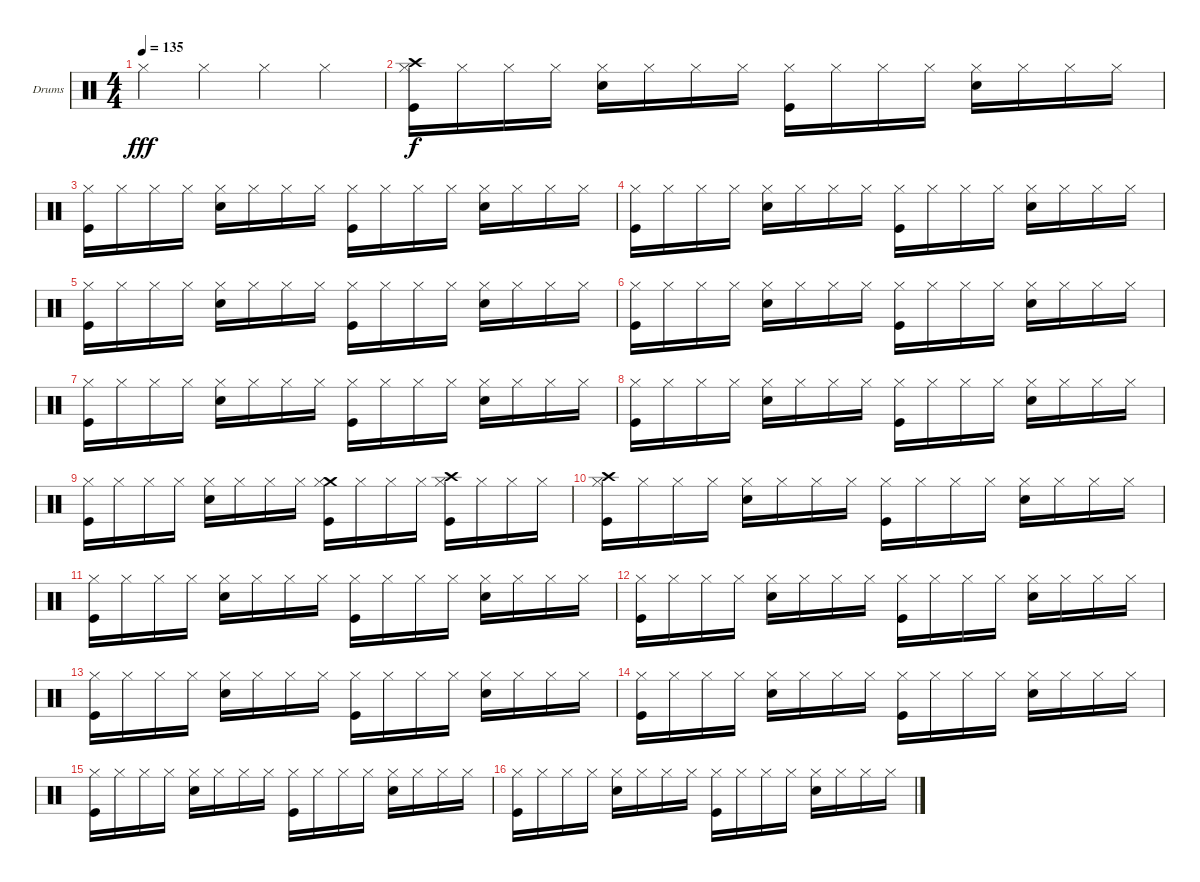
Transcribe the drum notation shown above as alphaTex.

\bracketExtendMode groupsimilarinstruments
\firstSystemTrackNameOrientation horizontal
\otherSystemsTrackNameOrientation horizontal
\track ("Ударные" "Drums") {instrument percussion}
\staff {score}
\articulation defaults
\ts (4 4)
\beaming (8 2 2 2 2)
\tempo 135
\clef neutral
\ks c "Hi-Hat (closed)".4{dy fff} "Hi-Hat (closed)".4 "Hi-Hat (closed)".4 "Hi-Hat (closed)".4
|
("Crash high (hit)" "Hi-Hat (closed)" "Kick (hit)").16{dy f} "Hi-Hat (closed)".16 "Hi-Hat (closed)".16 "Hi-Hat (closed)".16 ("Hi-Hat (closed)" "Snare (hit) 2").16 "Hi-Hat (closed)".16 "Hi-Hat (closed)".16 "Hi-Hat (closed)".16 ("Hi-Hat (closed)" "Kick (hit)").16 "Hi-Hat (closed)".16 "Hi-Hat (closed)".16 "Hi-Hat (closed)".16 ("Hi-Hat (closed)" "Snare (hit) 2").16 "Hi-Hat (closed)".16 "Hi-Hat (closed)".16 "Hi-Hat (closed)".16 |
("Hi-Hat (closed)" "Kick (hit)").16 "Hi-Hat (closed)".16 "Hi-Hat (closed)".16 "Hi-Hat (closed)".16 ("Hi-Hat (closed)" "Snare (hit) 2").16 "Hi-Hat (closed)".16 "Hi-Hat (closed)".16 "Hi-Hat (closed)".16 ("Hi-Hat (closed)" "Kick (hit)").16 "Hi-Hat (closed)".16 "Hi-Hat (closed)".16 "Hi-Hat (closed)".16 ("Hi-Hat (closed)" "Snare (hit) 2").16 "Hi-Hat (closed)".16 "Hi-Hat (closed)".16 "Hi-Hat (closed)".16 |
("Hi-Hat (closed)" "Kick (hit)").16 "Hi-Hat (closed)".16 "Hi-Hat (closed)".16 "Hi-Hat (closed)".16 ("Hi-Hat (closed)" "Snare (hit) 2").16 "Hi-Hat (closed)".16 "Hi-Hat (closed)".16 "Hi-Hat (closed)".16 ("Hi-Hat (closed)" "Kick (hit)").16 "Hi-Hat (closed)".16 "Hi-Hat (closed)".16 "Hi-Hat (closed)".16 ("Hi-Hat (closed)" "Snare (hit) 2").16 "Hi-Hat (closed)".16 "Hi-Hat (closed)".16 "Hi-Hat (closed)".16 |
("Hi-Hat (closed)" "Kick (hit)").16 "Hi-Hat (closed)".16 "Hi-Hat (closed)".16 "Hi-Hat (closed)".16 ("Hi-Hat (closed)" "Snare (hit) 2").16 "Hi-Hat (closed)".16 "Hi-Hat (closed)".16 "Hi-Hat (closed)".16 ("Hi-Hat (closed)" "Kick (hit)").16 "Hi-Hat (closed)".16 "Hi-Hat (closed)".16 "Hi-Hat (closed)".16 ("Hi-Hat (closed)" "Snare (hit) 2").16 "Hi-Hat (closed)".16 "Hi-Hat (closed)".16 "Hi-Hat (closed)".16 |
("Hi-Hat (closed)" "Kick (hit)").16 "Hi-Hat (closed)".16 "Hi-Hat (closed)".16 "Hi-Hat (closed)".16 ("Hi-Hat (closed)" "Snare (hit) 2").16 "Hi-Hat (closed)".16 "Hi-Hat (closed)".16 "Hi-Hat (closed)".16 ("Hi-Hat (closed)" "Kick (hit)").16 "Hi-Hat (closed)".16 "Hi-Hat (closed)".16 "Hi-Hat (closed)".16 ("Hi-Hat (closed)" "Snare (hit) 2").16 "Hi-Hat (closed)".16 "Hi-Hat (closed)".16 "Hi-Hat (closed)".16 |
("Hi-Hat (closed)" "Kick (hit)").16 "Hi-Hat (closed)".16 "Hi-Hat (closed)".16 "Hi-Hat (closed)".16 ("Hi-Hat (closed)" "Snare (hit) 2").16 "Hi-Hat (closed)".16 "Hi-Hat (closed)".16 "Hi-Hat (closed)".16 ("Hi-Hat (closed)" "Kick (hit)").16 "Hi-Hat (closed)".16 "Hi-Hat (closed)".16 "Hi-Hat (closed)".16 ("Hi-Hat (closed)" "Snare (hit) 2").16 "Hi-Hat (closed)".16 "Hi-Hat (closed)".16 "Hi-Hat (closed)".16 |
("Hi-Hat (closed)" "Kick (hit)").16 "Hi-Hat (closed)".16 "Hi-Hat (closed)".16 "Hi-Hat (closed)".16 ("Hi-Hat (closed)" "Snare (hit) 2").16 "Hi-Hat (closed)".16 "Hi-Hat (closed)".16 "Hi-Hat (closed)".16 ("Hi-Hat (closed)" "Kick (hit)").16 "Hi-Hat (closed)".16 "Hi-Hat (closed)".16 "Hi-Hat (closed)".16 ("Hi-Hat (closed)" "Snare (hit) 2").16 "Hi-Hat (closed)".16 "Hi-Hat (closed)".16 "Hi-Hat (closed)".16 |
("Hi-Hat (closed)" "Kick (hit)").16 "Hi-Hat (closed)".16 "Hi-Hat (closed)".16 "Hi-Hat (closed)".16 ("Hi-Hat (closed)" "Snare (hit) 2").16 "Hi-Hat (closed)".16 "Hi-Hat (closed)".16 "Hi-Hat (closed)".16 ("Crash medium (hit)" "Hi-Hat (closed)" "Kick (hit)").16 "Hi-Hat (closed)".16 "Hi-Hat (closed)".16 "Hi-Hat (closed)".16 ("Crash high (hit)" "Hi-Hat (closed)" "Kick (hit)").16 "Hi-Hat (closed)".16 "Hi-Hat (closed)".16 "Hi-Hat (closed)".16 |
("Crash high (hit)" "Hi-Hat (closed)" "Kick (hit)").16 "Hi-Hat (closed)".16 "Hi-Hat (closed)".16 "Hi-Hat (closed)".16 ("Hi-Hat (closed)" "Snare (hit) 2").16 "Hi-Hat (closed)".16 "Hi-Hat (closed)".16 "Hi-Hat (closed)".16 ("Hi-Hat (closed)" "Kick (hit)").16 "Hi-Hat (closed)".16 "Hi-Hat (closed)".16 "Hi-Hat (closed)".16 ("Hi-Hat (closed)" "Snare (hit) 2").16 "Hi-Hat (closed)".16 "Hi-Hat (closed)".16 "Hi-Hat (closed)".16 |
("Hi-Hat (closed)" "Kick (hit)").16 "Hi-Hat (closed)".16 "Hi-Hat (closed)".16 "Hi-Hat (closed)".16 ("Hi-Hat (closed)" "Snare (hit) 2").16 "Hi-Hat (closed)".16 "Hi-Hat (closed)".16 "Hi-Hat (closed)".16 ("Hi-Hat (closed)" "Kick (hit)").16 "Hi-Hat (closed)".16 "Hi-Hat (closed)".16 "Hi-Hat (closed)".16 ("Hi-Hat (closed)" "Snare (hit) 2").16 "Hi-Hat (closed)".16 "Hi-Hat (closed)".16 "Hi-Hat (closed)".16 |
("Hi-Hat (closed)" "Kick (hit)").16 "Hi-Hat (closed)".16 "Hi-Hat (closed)".16 "Hi-Hat (closed)".16 ("Hi-Hat (closed)" "Snare (hit) 2").16 "Hi-Hat (closed)".16 "Hi-Hat (closed)".16 "Hi-Hat (closed)".16 ("Hi-Hat (closed)" "Kick (hit)").16 "Hi-Hat (closed)".16 "Hi-Hat (closed)".16 "Hi-Hat (closed)".16 ("Hi-Hat (closed)" "Snare (hit) 2").16 "Hi-Hat (closed)".16 "Hi-Hat (closed)".16 "Hi-Hat (closed)".16 |
("Hi-Hat (closed)" "Kick (hit)").16 "Hi-Hat (closed)".16 "Hi-Hat (closed)".16 "Hi-Hat (closed)".16 ("Hi-Hat (closed)" "Snare (hit) 2").16 "Hi-Hat (closed)".16 "Hi-Hat (closed)".16 "Hi-Hat (closed)".16 ("Hi-Hat (closed)" "Kick (hit)").16 "Hi-Hat (closed)".16 "Hi-Hat (closed)".16 "Hi-Hat (closed)".16 ("Hi-Hat (closed)" "Snare (hit) 2").16 "Hi-Hat (closed)".16 "Hi-Hat (closed)".16 "Hi-Hat (closed)".16 |
("Hi-Hat (closed)" "Kick (hit)").16 "Hi-Hat (closed)".16 "Hi-Hat (closed)".16 "Hi-Hat (closed)".16 ("Hi-Hat (closed)" "Snare (hit) 2").16 "Hi-Hat (closed)".16 "Hi-Hat (closed)".16 "Hi-Hat (closed)".16 ("Hi-Hat (closed)" "Kick (hit)").16 "Hi-Hat (closed)".16 "Hi-Hat (closed)".16 "Hi-Hat (closed)".16 ("Hi-Hat (closed)" "Snare (hit) 2").16 "Hi-Hat (closed)".16 "Hi-Hat (closed)".16 "Hi-Hat (closed)".16 |
("Hi-Hat (closed)" "Kick (hit)").16 "Hi-Hat (closed)".16 "Hi-Hat (closed)".16 "Hi-Hat (closed)".16 ("Hi-Hat (closed)" "Snare (hit) 2").16 "Hi-Hat (closed)".16 "Hi-Hat (closed)".16 "Hi-Hat (closed)".16 ("Hi-Hat (closed)" "Kick (hit)").16 "Hi-Hat (closed)".16 "Hi-Hat (closed)".16 "Hi-Hat (closed)".16 ("Hi-Hat (closed)" "Snare (hit) 2").16 "Hi-Hat (closed)".16 "Hi-Hat (closed)".16 "Hi-Hat (closed)".16 |
("Hi-Hat (closed)" "Kick (hit)").16 "Hi-Hat (closed)".16 "Hi-Hat (closed)".16 "Hi-Hat (closed)".16 ("Hi-Hat (closed)" "Snare (hit) 2").16 "Hi-Hat (closed)".16 "Hi-Hat (closed)".16 "Hi-Hat (closed)".16 ("Hi-Hat (closed)" "Kick (hit)").16 "Hi-Hat (closed)".16 "Hi-Hat (closed)".16 "Hi-Hat (closed)".16 ("Hi-Hat (closed)" "Snare (hit) 2").16 "Hi-Hat (closed)".16 "Hi-Hat (closed)".16 "Hi-Hat (closed)".16
